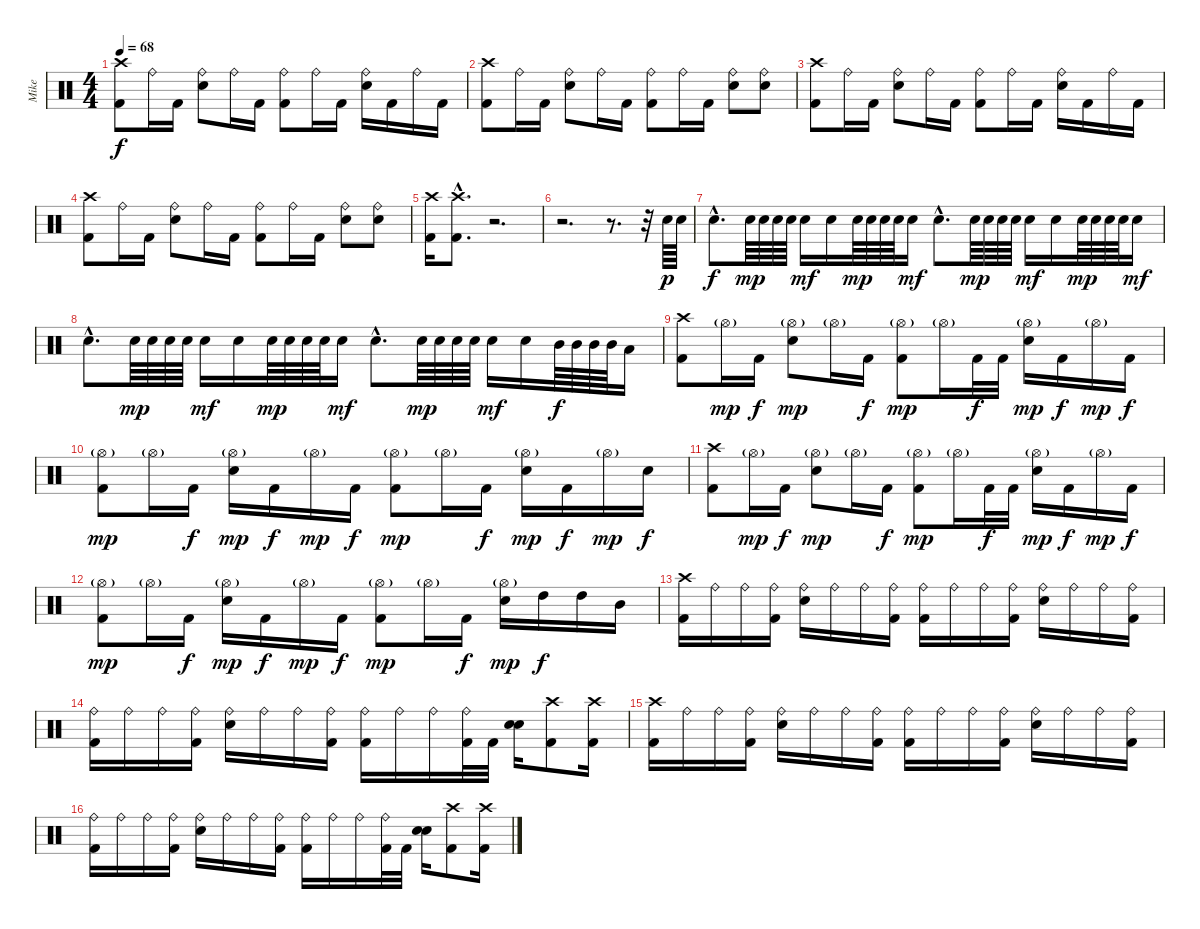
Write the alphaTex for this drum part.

\track ("Mike" "Mike") {instrument percussion}
\staff {score}
\articulation defaults
\ts (4 4)
\tempo 68
\clef neutral
\ks c
("Crash high (hit)" "Kick (hit) 2").8{dy f} "Ride (bell)".16 "Kick (hit) 2".16 ("Ride (bell)" "Snare (hit) 2").8 "Ride (bell)".16 "Kick (hit) 2".16 ("Ride (bell)" "Kick (hit) 2").8 "Ride (bell)".16 "Kick (hit) 2".16 ("Ride (bell)" "Snare (hit) 2").16 "Kick (hit) 2".16 "Ride (bell)".16 "Kick (hit) 2".16 |
("Crash high (hit)" "Kick (hit) 2").8 "Ride (bell)".16 "Kick (hit) 2".16 ("Ride (bell)" "Snare (hit) 2").8 "Ride (bell)".16 "Kick (hit) 2".16 ("Ride (bell)" "Kick (hit) 2").8 "Ride (bell)".16 "Kick (hit) 2".16 ("Ride (bell)" "Snare (hit) 2").8 ("Ride (bell)" "Snare (hit) 2").8 |
("Crash high (hit)" "Kick (hit) 2").8 "Ride (bell)".16 "Kick (hit) 2".16 ("Ride (bell)" "Snare (hit) 2").8 "Ride (bell)".16 "Kick (hit) 2".16 ("Ride (bell)" "Kick (hit) 2").8 "Ride (bell)".16 "Kick (hit) 2".16 ("Ride (bell)" "Snare (hit) 2").16 "Kick (hit) 2".16 "Ride (bell)".16 "Kick (hit) 2".16 |
("Crash high (hit)" "Kick (hit) 2").8 "Ride (bell)".16 "Kick (hit) 2".16 ("Ride (bell)" "Snare (hit) 2").8 "Ride (bell)".16 "Kick (hit) 2".16 ("Ride (bell)" "Kick (hit) 2").8 "Ride (bell)".16 "Kick (hit) 2".16 ("Ride (bell)" "Snare (hit) 2").8 ("Ride (bell)" "Snare (hit) 2").8 |
("Crash high (hit)" "Kick (hit) 2").16 ("Crash high (hit)"{hac} "Kick (hit) 2"{hac}).8{d} r.2{d} |
r.2{d} r.8{d} r.32 "Snare (hit) 2".64{dy p} "Snare (hit) 2".64 |
"Snare (hit) 2"{hac}.8{d dy f} "Snare (hit) 2".64{dy mp} "Snare (hit) 2".64 "Snare (hit) 2".64 "Snare (hit) 2".64 "Snare (hit) 2".16{dy mf} "Snare (hit) 2".16 "Snare (hit) 2".64{dy mp} "Snare (hit) 2".64 "Snare (hit) 2".64 "Snare (hit) 2".64 "Snare (hit) 2".16{dy mf} "Snare (hit) 2"{hac}.8{d} "Snare (hit) 2".64{dy mp} "Snare (hit) 2".64 "Snare (hit) 2".64 "Snare (hit) 2".64 "Snare (hit) 2".16{dy mf} "Snare (hit) 2".16 "Snare (hit) 2".64{dy mp} "Snare (hit) 2".64 "Snare (hit) 2".64 "Snare (hit) 2".64 "Snare (hit) 2".16{dy mf} |
"Snare (hit) 2"{hac}.8{d} "Snare (hit) 2".64{dy mp} "Snare (hit) 2".64 "Snare (hit) 2".64 "Snare (hit) 2".64 "Snare (hit) 2".16{dy mf} "Snare (hit) 2".16 "Snare (hit) 2".64{dy mp} "Snare (hit) 2".64 "Snare (hit) 2".64 "Snare (hit) 2".64 "Snare (hit) 2".16{dy mf} "Snare (hit) 2"{hac}.8{d} "Snare (hit) 2".64{dy mp} "Snare (hit) 2".64 "Snare (hit) 2".64 "Snare (hit) 2".64 "Snare (hit) 2".16{dy mf} "Snare (hit) 2".16 "Mid Tom (hit)".64{dy f} "Mid Tom (hit)".64 "Mid Tom (hit)".64 "Mid Tom (hit)".64 "Low Tom (hit)".16 |
("Crash high (hit)" "Kick (hit) 2").8 "Hi-Hat (open)"{g}.16{dy mp} "Kick (hit) 2".16{dy f} ("Hi-Hat (open)"{g} "Snare (hit) 2").8{dy mp} "Hi-Hat (open)"{g}.16 "Kick (hit) 2".16{dy f} ("Hi-Hat (open)"{g} "Kick (hit) 2").8{dy mp} "Hi-Hat (open)"{g}.16 "Kick (hit) 2".32{dy f} "Kick (hit) 2".32 ("Hi-Hat (open)"{g} "Snare (hit) 2").16{dy mp} "Kick (hit) 2".16{dy f} "Hi-Hat (open)"{g}.16{dy mp} "Kick (hit) 2".16{dy f} |
("Hi-Hat (open)"{g} "Kick (hit) 2").8{dy mp} "Hi-Hat (open)"{g}.16 "Kick (hit) 2".16{dy f} ("Hi-Hat (open)"{g} "Snare (hit) 2").16{dy mp} "Kick (hit) 2".16{dy f} "Hi-Hat (open)"{g}.16{dy mp} "Kick (hit) 2".16{dy f} ("Hi-Hat (open)"{g} "Kick (hit) 2").8{dy mp} "Hi-Hat (open)"{g}.16 "Kick (hit) 2".16{dy f} ("Hi-Hat (open)"{g} "Snare (hit) 2").16{dy mp} "Kick (hit) 2".16{dy f} "Hi-Hat (open)"{g}.16{dy mp} "Snare (hit) 2".16{dy f} |
("Crash high (hit)" "Kick (hit) 2").8 "Hi-Hat (open)"{g}.16{dy mp} "Kick (hit) 2".16{dy f} ("Hi-Hat (open)"{g} "Snare (hit) 2").8{dy mp} "Hi-Hat (open)"{g}.16 "Kick (hit) 2".16{dy f} ("Hi-Hat (open)"{g} "Kick (hit) 2").8{dy mp} "Hi-Hat (open)"{g}.16 "Kick (hit) 2".32{dy f} "Kick (hit) 2".32 ("Hi-Hat (open)"{g} "Snare (hit) 2").16{dy mp} "Kick (hit) 2".16{dy f} "Hi-Hat (open)"{g}.16{dy mp} "Kick (hit) 2".16{dy f} |
("Hi-Hat (open)"{g} "Kick (hit) 2").8{dy mp} "Hi-Hat (open)"{g}.16 "Kick (hit) 2".16{dy f} ("Hi-Hat (open)"{g} "Snare (hit) 2").16{dy mp} "Kick (hit) 2".16{dy f} "Hi-Hat (open)"{g}.16{dy mp} "Kick (hit) 2".16{dy f} ("Hi-Hat (open)"{g} "Kick (hit) 2").8{dy mp} "Hi-Hat (open)"{g}.16 "Kick (hit) 2".16{dy f} ("Hi-Hat (open)"{g} "Snare (hit) 2").16{dy mp} "High Tom (hit)".16{dy f} "High Tom (hit)".16 "Mid Tom (hit)".16 |
("Crash high (hit)" "Kick (hit) 2").16 "Ride (bell)".16 "Ride (bell)".16 ("Ride (bell)" "Kick (hit) 2").16 ("Ride (bell)" "Snare (hit) 2").16 "Ride (bell)".16 "Ride (bell)".16 ("Ride (bell)" "Kick (hit) 2").16 ("Ride (bell)" "Kick (hit) 2").16 "Ride (bell)".16 "Ride (bell)".16 ("Ride (bell)" "Kick (hit) 2").16 ("Ride (bell)" "Snare (hit) 2").16 "Ride (bell)".16 "Ride (bell)".16 ("Ride (bell)" "Kick (hit) 2").16 |
("Ride (bell)" "Kick (hit) 2").16 "Ride (bell)".16 "Ride (bell)".16 ("Ride (bell)" "Kick (hit) 2").16 ("Ride (bell)" "Snare (hit) 2").16 "Ride (bell)".16 "Ride (bell)".16 ("Ride (bell)" "Kick (hit) 2").16 ("Ride (bell)" "Kick (hit) 2").16 "Ride (bell)".16 "Ride (bell)".16 ("Ride (bell)" "Kick (hit) 2").32 "Kick (hit) 2".32 ("Snare (hit) 2" "Snare (hit) 2").16 ("Crash high (hit)" "Kick (hit) 2").8 ("Crash high (hit)" "Kick (hit) 2").16 |
("Crash high (hit)" "Kick (hit) 2").16 "Ride (bell)".16 "Ride (bell)".16 ("Ride (bell)" "Kick (hit) 2").16 ("Ride (bell)" "Snare (hit) 2").16 "Ride (bell)".16 "Ride (bell)".16 ("Ride (bell)" "Kick (hit) 2").16 ("Ride (bell)" "Kick (hit) 2").16 "Ride (bell)".16 "Ride (bell)".16 ("Ride (bell)" "Kick (hit) 2").16 ("Ride (bell)" "Snare (hit) 2").16 "Ride (bell)".16 "Ride (bell)".16 ("Ride (bell)" "Kick (hit) 2").16 |
("Ride (bell)" "Kick (hit) 2").16 "Ride (bell)".16 "Ride (bell)".16 ("Ride (bell)" "Kick (hit) 2").16 ("Ride (bell)" "Snare (hit) 2").16 "Ride (bell)".16 "Ride (bell)".16 ("Ride (bell)" "Kick (hit) 2").16 ("Ride (bell)" "Kick (hit) 2").16 "Ride (bell)".16 "Ride (bell)".16 ("Ride (bell)" "Kick (hit) 2").32 "Kick (hit) 2".32 ("Snare (hit) 2" "Snare (hit) 2").16 ("Crash high (hit)" "Kick (hit) 2").8 ("Crash high (hit)" "Kick (hit) 2").16
